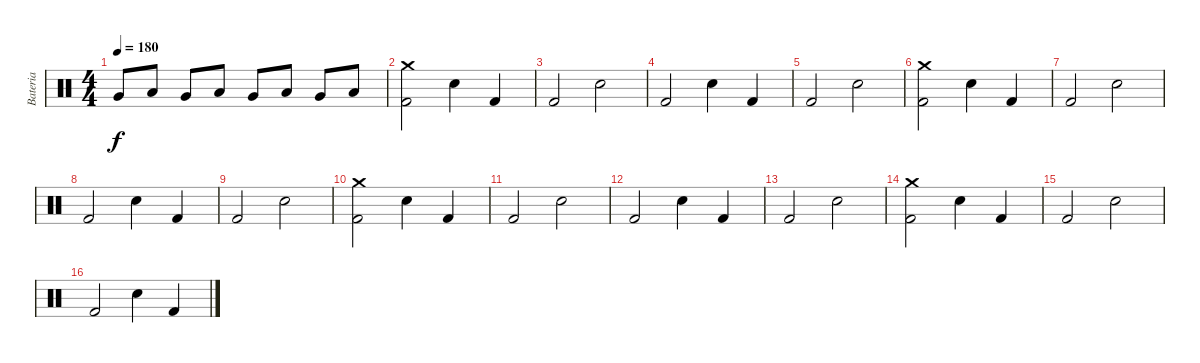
\track ("Bateria" "Bateria") {instrument percussion}
\staff {score}
\articulation defaults
\ts (4 4)
\tempo 180
\clef neutral
\ks c "Very Low Tom (hit)".8{dy f} "Low Floor Tom (hit)".8 "Very Low Tom (hit)".8 "Low Floor Tom (hit)".8 "Very Low Tom (hit)".8 "Low Floor Tom (hit)".8 "Very Low Tom (hit)".8 "Low Floor Tom (hit)".8
|
("Crash medium (hit)" "Kick (hit) 2").2 "Electric Snare (hit)".4 "Kick (hit) 2".4 |
"Kick (hit) 2".2 "Electric Snare (hit)".2 |
"Kick (hit) 2".2 "Electric Snare (hit)".4 "Kick (hit) 2".4 |
"Kick (hit) 2".2 "Electric Snare (hit)".2 |
("Crash medium (hit)" "Kick (hit) 2").2 "Electric Snare (hit)".4 "Kick (hit) 2".4 |
"Kick (hit) 2".2 "Electric Snare (hit)".2 |
"Kick (hit) 2".2 "Electric Snare (hit)".4 "Kick (hit) 2".4 |
"Kick (hit) 2".2 "Electric Snare (hit)".2 |
("Crash medium (hit)" "Kick (hit) 2").2 "Electric Snare (hit)".4 "Kick (hit) 2".4 |
"Kick (hit) 2".2 "Electric Snare (hit)".2 |
"Kick (hit) 2".2 "Electric Snare (hit)".4 "Kick (hit) 2".4 |
"Kick (hit) 2".2 "Electric Snare (hit)".2 |
("Crash medium (hit)" "Kick (hit) 2").2 "Electric Snare (hit)".4 "Kick (hit) 2".4 |
"Kick (hit) 2".2 "Electric Snare (hit)".2 |
"Kick (hit) 2".2 "Electric Snare (hit)".4 "Kick (hit) 2".4
